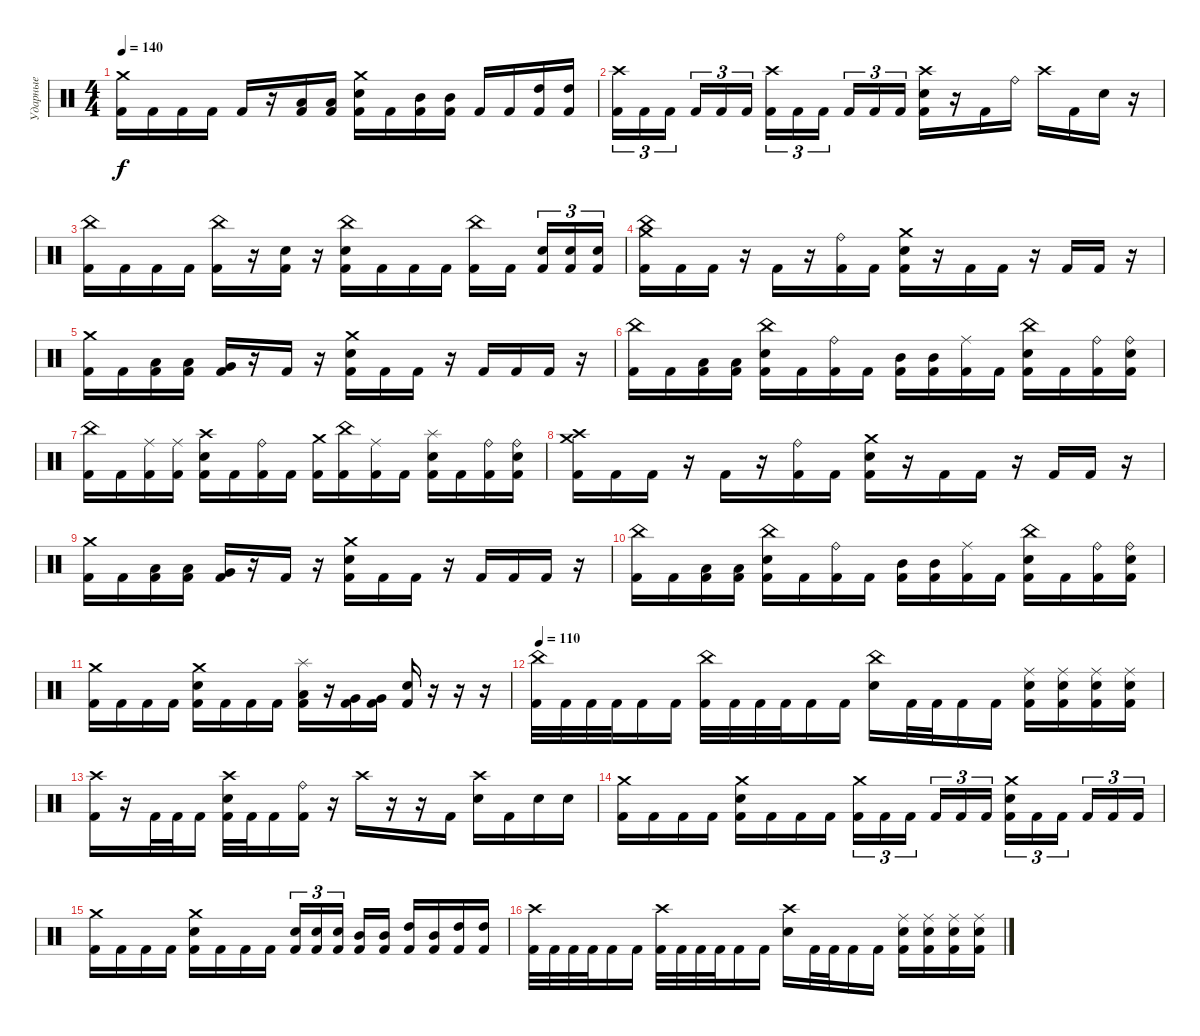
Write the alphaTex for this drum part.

\track ("Ударные" "Ударные") {instrument percussion}
\staff {score}
\articulation defaults
\ts (4 4)
\tempo 140
\clef neutral
\ks c
("Crash medium (hit)" "Kick (hit) 2").16{dy f} "Kick (hit) 2".16 "Kick (hit) 2".16 "Kick (hit) 2".16 "Kick (hit) 2".16 r.16 ("Low Tom (hit)" "Kick (hit) 2").16 ("Low Tom (hit)" "Kick (hit) 2").16 ("Crash medium (hit)" "Electric Snare (hit)" "Kick (hit) 2").16 "Kick (hit) 2".16 ("Mid Tom (hit)" "Kick (hit) 2").16 ("Mid Tom (hit)" "Kick (hit) 2").16 "Kick (hit) 2".16 "Kick (hit) 2".16 ("High Tom (hit)" "Kick (hit) 2").16 ("High Tom (hit)" "Kick (hit) 2").16 |
("Crash high (hit)" "Kick (hit) 2").16{tu (3 2)} "Kick (hit) 2".16{tu (3 2)} "Kick (hit) 2".16{tu (3 2) beam splitsecondary} "Kick (hit) 2".16{tu (3 2)} "Kick (hit) 2".16{tu (3 2)} "Kick (hit) 2".16{tu (3 2)} ("Crash high (hit)" "Kick (hit) 2").16{tu (3 2)} "Kick (hit) 2".16{tu (3 2)} "Kick (hit) 2".16{tu (3 2) beam splitsecondary} "Kick (hit) 2".16{tu (3 2)} "Kick (hit) 2".16{tu (3 2)} "Kick (hit) 2".16{tu (3 2)} ("Crash high (hit)" "Electric Snare (hit)" "Kick (hit) 2").16 r.16 "Kick (hit) 2".16 "Ride (bell)".16 "Crash high (hit)".16 "Kick (hit) 2".16 "Electric Snare (hit)".16 r.16 |
("China (hit)" "Kick (hit) 2").16 "Kick (hit) 2".16 "Kick (hit) 2".16 "Kick (hit) 2".16 ("China (hit)" "Kick (hit) 2").16 r.16 ("Electric Snare (hit)" "Kick (hit) 2").16 r.16 ("China (hit)" "Electric Snare (hit)" "Kick (hit) 2").16 "Kick (hit) 2".16 "Kick (hit) 2".16 "Kick (hit) 2".16 ("China (hit)" "Kick (hit) 2").16 "Kick (hit) 2".16{beam splitsecondary} ("Electric Snare (hit)" "Kick (hit) 2").16{tu (3 2)} ("Electric Snare (hit)" "Kick (hit) 2").16{tu (3 2)} ("Electric Snare (hit)" "Kick (hit) 2").16{tu (3 2)} |
("China (hit)" "Crash medium (hit)" "Kick (hit) 2").16 "Kick (hit) 2".16 "Kick (hit) 2".16 r.16 "Kick (hit) 2".16 r.16 ("Ride (bell)" "Kick (hit) 2").16 "Kick (hit) 2".16 ("Crash medium (hit)" "Electric Snare (hit)" "Kick (hit) 2").16 r.16 "Kick (hit) 2".16 "Kick (hit) 2".16 r.16 "Kick (hit) 2".16 "Kick (hit) 2".16 r.16 |
("Crash medium (hit)" "Kick (hit) 2").16 "Kick (hit) 2".16 ("Low Tom (hit)" "Kick (hit) 2").16 ("Low Tom (hit)" "Kick (hit) 2").16 ("Very Low Tom (hit)" "Kick (hit) 2").16 r.16 "Kick (hit) 2".16 r.16 ("Crash medium (hit)" "Electric Snare (hit)" "Kick (hit) 2").16 "Kick (hit) 2".16 "Kick (hit) 2".16 r.16 "Kick (hit) 2".16 "Kick (hit) 2".16 "Kick (hit) 2".16 r.16 |
("China (hit)" "Kick (hit) 2").16 "Kick (hit) 2".16 ("Low Tom (hit)" "Kick (hit) 2").16 ("Low Tom (hit)" "Kick (hit) 2").16 ("China (hit)" "Electric Snare (hit)" "Kick (hit) 2").16 "Kick (hit) 2".16 ("Ride (bell)" "Kick (hit) 2").16 "Kick (hit) 2".16 ("Mid Tom (hit)" "Kick (hit) 2").16 ("Mid Tom (hit)" "Kick (hit) 2").16 ("Ride (middle)" "Kick (hit) 2").16 "Kick (hit) 2".16 ("China (hit)" "Electric Snare (hit)" "Kick (hit) 2").16 "Kick (hit) 2".16 ("Ride (bell)" "Kick (hit) 2").16 ("Ride (bell)" "Electric Snare (hit)" "Kick (hit) 2").16 |
("China (hit)" "Kick (hit) 2").16 "Kick (hit) 2".16 ("Ride (middle)" "Kick (hit) 2").16 ("Ride (middle)" "Kick (hit) 2").16 ("Crash high (hit)" "Electric Snare (hit)" "Kick (hit) 2").16 "Kick (hit) 2".16 ("Ride (bell)" "Kick (hit) 2").16 "Kick (hit) 2".16 ("Crash medium (hit)" "Kick (hit) 2").16 ("China (hit)" "Kick (hit) 2").16 ("Ride (middle)" "Kick (hit) 2").16 "Kick (hit) 2".16 ("Splash (hit)" "Electric Snare (hit)" "Kick (hit) 2").16 "Kick (hit) 2".16 ("Ride (bell)" "Kick (hit) 2").16 ("Ride (bell)" "Electric Snare (hit)" "Kick (hit) 2").16 |
("Crash medium (hit)" "Crash high (hit)" "Kick (hit) 2").16 "Kick (hit) 2".16 "Kick (hit) 2".16 r.16 "Kick (hit) 2".16 r.16 ("Ride (bell)" "Kick (hit) 2").16 "Kick (hit) 2".16 ("Crash medium (hit)" "Electric Snare (hit)" "Kick (hit) 2").16 r.16 "Kick (hit) 2".16 "Kick (hit) 2".16 r.16 "Kick (hit) 2".16 "Kick (hit) 2".16 r.16 |
("Crash medium (hit)" "Kick (hit) 2").16 "Kick (hit) 2".16 ("Low Tom (hit)" "Kick (hit) 2").16 ("Low Tom (hit)" "Kick (hit) 2").16 ("Very Low Tom (hit)" "Kick (hit) 2").16 r.16 "Kick (hit) 2".16 r.16 ("Crash medium (hit)" "Electric Snare (hit)" "Kick (hit) 2").16 "Kick (hit) 2".16 "Kick (hit) 2".16 r.16 "Kick (hit) 2".16 "Kick (hit) 2".16 "Kick (hit) 2".16 r.16 |
("China (hit)" "Kick (hit) 2").16 "Kick (hit) 2".16 ("Low Tom (hit)" "Kick (hit) 2").16 ("Low Tom (hit)" "Kick (hit) 2").16 ("China (hit)" "Electric Snare (hit)" "Kick (hit) 2").16 "Kick (hit) 2".16 ("Ride (bell)" "Kick (hit) 2").16 "Kick (hit) 2".16 ("Mid Tom (hit)" "Kick (hit) 2").16 ("Mid Tom (hit)" "Kick (hit) 2").16 ("Ride (middle)" "Kick (hit) 2").16 "Kick (hit) 2".16 ("China (hit)" "Electric Snare (hit)" "Kick (hit) 2").16 "Kick (hit) 2".16 ("Ride (bell)" "Kick (hit) 2").16 ("Ride (bell)" "Electric Snare (hit)" "Kick (hit) 2").16 |
("Crash medium (hit)" "Kick (hit) 2").16 "Kick (hit) 2".16 "Kick (hit) 2".16 "Kick (hit) 2".16 ("Crash medium (hit)" "Electric Snare (hit)" "Kick (hit) 2").16 "Kick (hit) 2".16 "Kick (hit) 2".16 "Kick (hit) 2".16 ("Splash (hit)" "Low Tom (hit)" "Kick (hit) 2").16 r.16 ("Very Low Tom (hit)" "Kick (hit) 2").16 ("Very Low Tom (hit)" "Kick (hit) 2").16 ("Electric Snare (hit)" "Kick (hit) 2").16 r.16 r.16 r.16 |
\tempo 110
("China (hit)" "Kick (hit) 2").32 "Kick (hit) 2".32 "Kick (hit) 2".32 "Kick (hit) 2".32 "Kick (hit) 2".16 "Kick (hit) 2".16 ("China (hit)" "Kick (hit) 2").32 "Kick (hit) 2".32 "Kick (hit) 2".32 "Kick (hit) 2".32 "Kick (hit) 2".16 "Kick (hit) 2".16 ("China (hit)" "Electric Snare (hit)").16 "Kick (hit) 2".32 "Kick (hit) 2".32 "Kick (hit) 2".16 "Kick (hit) 2".16 ("Ride (middle)" "Electric Snare (hit)" "Kick (hit) 2").16 ("Ride (middle)" "Electric Snare (hit)" "Kick (hit) 2").16 ("Ride (middle)" "Electric Snare (hit)" "Kick (hit) 2").16 ("Ride (middle)" "Electric Snare (hit)" "Kick (hit) 2").16 |
("Crash high (hit)" "Kick (hit) 2").16 r.16 "Kick (hit) 2".32 "Kick (hit) 2".32 "Kick (hit) 2".16 ("Crash high (hit)" "Electric Snare (hit)" "Kick (hit) 2").32 "Kick (hit) 2".32 "Kick (hit) 2".16 ("Ride (bell)" "Kick (hit) 2").16 r.16 "Crash high (hit)".16 r.16 r.16 "Kick (hit) 2".16 ("Crash high (hit)" "Electric Snare (hit)").16 "Kick (hit) 2".16 "Electric Snare (hit)".16 "Electric Snare (hit)".16 |
("Crash medium (hit)" "Kick (hit) 2").16 "Kick (hit) 2".16 "Kick (hit) 2".16 "Kick (hit) 2".16 ("Crash medium (hit)" "Electric Snare (hit)" "Kick (hit) 2").16 "Kick (hit) 2".16 "Kick (hit) 2".16 "Kick (hit) 2".16 ("Crash medium (hit)" "Kick (hit) 2").16{tu (3 2)} "Kick (hit) 2".16{tu (3 2)} "Kick (hit) 2".16{tu (3 2) beam splitsecondary} "Kick (hit) 2".16{tu (3 2)} "Kick (hit) 2".16{tu (3 2)} "Kick (hit) 2".16{tu (3 2)} ("Crash medium (hit)" "Electric Snare (hit)" "Kick (hit) 2").16{tu (3 2)} "Kick (hit) 2".16{tu (3 2)} "Kick (hit) 2".16{tu (3 2) beam splitsecondary} "Kick (hit) 2".16{tu (3 2)} "Kick (hit) 2".16{tu (3 2)} "Kick (hit) 2".16{tu (3 2)} |
("Crash medium (hit)" "Kick (hit) 2").16 "Kick (hit) 2".16 "Kick (hit) 2".16 "Kick (hit) 2".16 ("Crash medium (hit)" "Electric Snare (hit)" "Kick (hit) 2").16 "Kick (hit) 2".16 "Kick (hit) 2".16 "Kick (hit) 2".16 ("Electric Snare (hit)" "Kick (hit) 2").16{tu (3 2)} ("Electric Snare (hit)" "Kick (hit) 2").16{tu (3 2)} ("Electric Snare (hit)" "Kick (hit) 2").16{tu (3 2) beam splitsecondary} ("Mid Tom (hit)" "Kick (hit) 2").16 ("Mid Tom (hit)" "Kick (hit) 2").16 ("High Tom (hit)" "Kick (hit) 2").16 ("Mid Tom (hit)" "Kick (hit) 2").16 ("High Tom (hit)" "Kick (hit) 2").16 ("High Tom (hit)" "Kick (hit) 2").16 |
("Crash high (hit)" "Kick (hit) 2").32 "Kick (hit) 2".32 "Kick (hit) 2".32 "Kick (hit) 2".32 "Kick (hit) 2".16 "Kick (hit) 2".16 ("Crash high (hit)" "Kick (hit) 2").32 "Kick (hit) 2".32 "Kick (hit) 2".32 "Kick (hit) 2".32 "Kick (hit) 2".16 "Kick (hit) 2".16 ("Crash high (hit)" "Electric Snare (hit)").16 "Kick (hit) 2".32 "Kick (hit) 2".32 "Kick (hit) 2".16 "Kick (hit) 2".16 ("Ride (middle)" "Electric Snare (hit)" "Kick (hit) 2").16 ("Ride (middle)" "Electric Snare (hit)" "Kick (hit) 2").16 ("Ride (middle)" "Electric Snare (hit)" "Kick (hit) 2").16 ("Ride (middle)" "Electric Snare (hit)" "Kick (hit) 2").16
